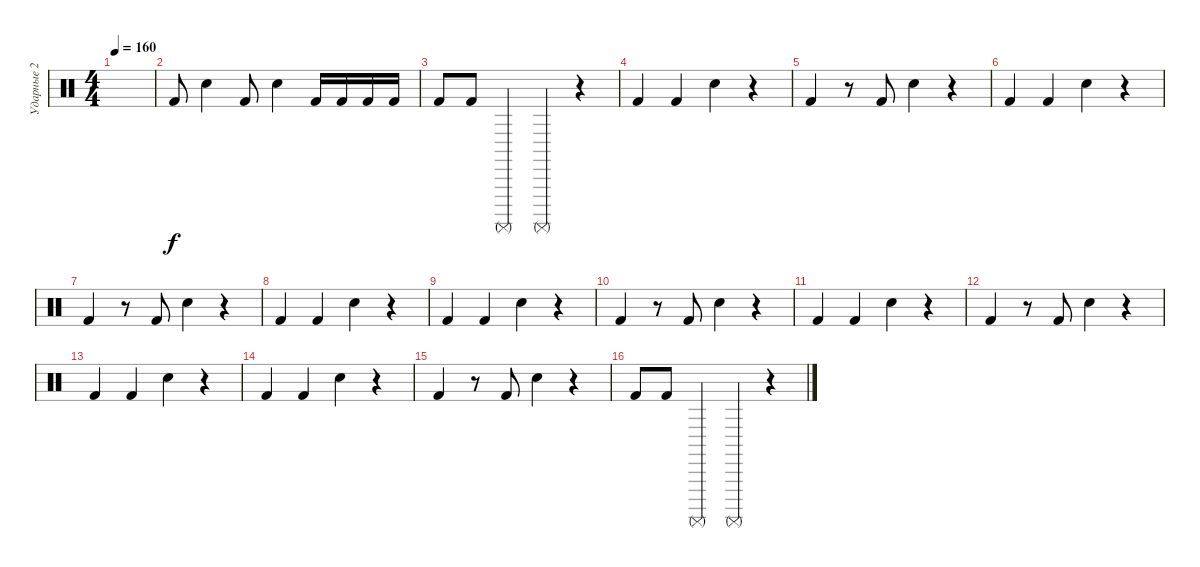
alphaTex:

\track ("Ударные 2" "Ударные 2") {instrument percussion}
\staff {score}
\articulation defaults
\ts (4 4)
\tempo 160
\clef neutral
\ks c
|
"Kick (hit) 2".8 "Hand Clap (hit)".4 "Kick (hit) 2".8 "Hand Clap (hit)".4 "Kick (hit) 2".16 "Kick (hit) 2".16 "Kick (hit) 2".16 "Kick (hit) 2".16 |
"Kick (hit) 2".8 "Kick (hit) 2".8 "Surdo (mute)".4 "Surdo (mute)".4 r.4 |
"Kick (hit) 2".4 "Kick (hit) 2".4 "Hand Clap (hit)".4 r.4 |
"Kick (hit) 2".4 r.8 "Kick (hit) 2".8 "Hand Clap (hit)".4 r.4 |
"Kick (hit) 2".4 "Kick (hit) 2".4 "Hand Clap (hit)".4 r.4 |
"Kick (hit) 2".4 r.8 "Kick (hit) 2".8 "Hand Clap (hit)".4 r.4 |
"Kick (hit) 2".4 "Kick (hit) 2".4 "Hand Clap (hit)".4 r.4 |
"Kick (hit) 2".4 "Kick (hit) 2".4 "Hand Clap (hit)".4 r.4 |
"Kick (hit) 2".4 r.8 "Kick (hit) 2".8 "Hand Clap (hit)".4 r.4 |
"Kick (hit) 2".4 "Kick (hit) 2".4 "Hand Clap (hit)".4 r.4 |
"Kick (hit) 2".4 r.8 "Kick (hit) 2".8 "Hand Clap (hit)".4 r.4 |
"Kick (hit) 2".4 "Kick (hit) 2".4 "Hand Clap (hit)".4 r.4 |
"Kick (hit) 2".4 "Kick (hit) 2".4 "Hand Clap (hit)".4 r.4 |
"Kick (hit) 2".4 r.8 "Kick (hit) 2".8 "Hand Clap (hit)".4 r.4 |
"Kick (hit) 2".8 "Kick (hit) 2".8 "Surdo (mute)".4 "Surdo (mute)".4 r.4
